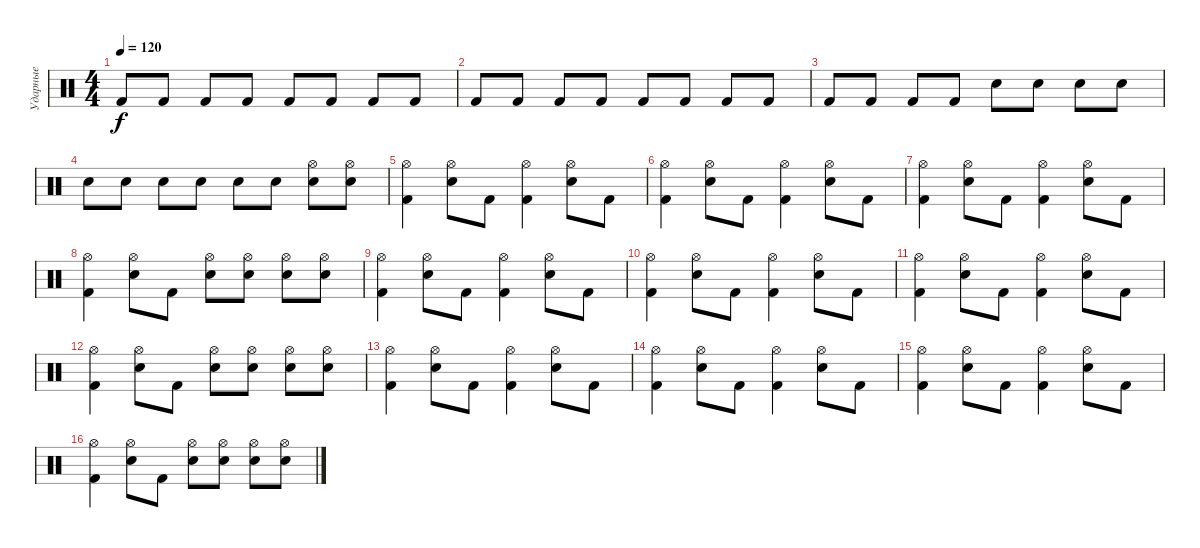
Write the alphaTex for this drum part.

\track ("Ударные" "Ударные") {instrument percussion}
\staff {score}
\articulation defaults
\ts (4 4)
\tempo 120
\clef neutral
\ks c "Kick (hit) 2".8{dy f} "Kick (hit) 2".8 "Kick (hit) 2".8 "Kick (hit) 2".8 "Kick (hit) 2".8 "Kick (hit) 2".8 "Kick (hit) 2".8 "Kick (hit) 2".8
|
"Kick (hit) 2".8 "Kick (hit) 2".8 "Kick (hit) 2".8 "Kick (hit) 2".8 "Kick (hit) 2".8 "Kick (hit) 2".8 "Kick (hit) 2".8 "Kick (hit) 2".8 |
"Kick (hit) 2".8 "Kick (hit) 2".8 "Kick (hit) 2".8 "Kick (hit) 2".8 "Snare (hit) 2".8 "Snare (hit) 2".8 "Snare (hit) 2".8 "Snare (hit) 2".8 |
"Snare (hit) 2".8 "Snare (hit) 2".8 "Snare (hit) 2".8 "Snare (hit) 2".8 "Snare (hit) 2".8 "Snare (hit) 2".8 ("Hi-Hat (open)" "Snare (hit) 2").8 ("Hi-Hat (open)" "Snare (hit) 2").8 |
("Hi-Hat (open)" "Kick (hit) 2").4 ("Hi-Hat (open)" "Snare (hit) 2").8 "Kick (hit) 2".8 ("Hi-Hat (open)" "Kick (hit) 2").4 ("Hi-Hat (open)" "Snare (hit) 2").8 "Kick (hit) 2".8 |
("Hi-Hat (open)" "Kick (hit) 2").4 ("Hi-Hat (open)" "Snare (hit) 2").8 "Kick (hit) 2".8 ("Hi-Hat (open)" "Kick (hit) 2").4 ("Hi-Hat (open)" "Snare (hit) 2").8 "Kick (hit) 2".8 |
("Hi-Hat (open)" "Kick (hit) 2").4 ("Hi-Hat (open)" "Snare (hit) 2").8 "Kick (hit) 2".8 ("Hi-Hat (open)" "Kick (hit) 2").4 ("Hi-Hat (open)" "Snare (hit) 2").8 "Kick (hit) 2".8 |
("Hi-Hat (open)" "Kick (hit) 2").4 ("Hi-Hat (open)" "Snare (hit) 2").8 "Kick (hit) 2".8 ("Hi-Hat (open)" "Snare (hit) 2").8 ("Hi-Hat (open)" "Snare (hit) 2").8 ("Hi-Hat (open)" "Snare (hit) 2").8 ("Hi-Hat (open)" "Snare (hit) 2").8 |
("Hi-Hat (open)" "Kick (hit) 2").4 ("Hi-Hat (open)" "Snare (hit) 2").8 "Kick (hit) 2".8 ("Hi-Hat (open)" "Kick (hit) 2").4 ("Hi-Hat (open)" "Snare (hit) 2").8 "Kick (hit) 2".8 |
("Hi-Hat (open)" "Kick (hit) 2").4 ("Hi-Hat (open)" "Snare (hit) 2").8 "Kick (hit) 2".8 ("Hi-Hat (open)" "Kick (hit) 2").4 ("Hi-Hat (open)" "Snare (hit) 2").8 "Kick (hit) 2".8 |
("Hi-Hat (open)" "Kick (hit) 2").4 ("Hi-Hat (open)" "Snare (hit) 2").8 "Kick (hit) 2".8 ("Hi-Hat (open)" "Kick (hit) 2").4 ("Hi-Hat (open)" "Snare (hit) 2").8 "Kick (hit) 2".8 |
("Hi-Hat (open)" "Kick (hit) 2").4 ("Hi-Hat (open)" "Snare (hit) 2").8 "Kick (hit) 2".8 ("Hi-Hat (open)" "Snare (hit) 2").8 ("Hi-Hat (open)" "Snare (hit) 2").8 ("Hi-Hat (open)" "Snare (hit) 2").8 ("Hi-Hat (open)" "Snare (hit) 2").8 |
("Hi-Hat (open)" "Kick (hit) 2").4 ("Hi-Hat (open)" "Snare (hit) 2").8 "Kick (hit) 2".8 ("Hi-Hat (open)" "Kick (hit) 2").4 ("Hi-Hat (open)" "Snare (hit) 2").8 "Kick (hit) 2".8 |
("Hi-Hat (open)" "Kick (hit) 2").4 ("Hi-Hat (open)" "Snare (hit) 2").8 "Kick (hit) 2".8 ("Hi-Hat (open)" "Kick (hit) 2").4 ("Hi-Hat (open)" "Snare (hit) 2").8 "Kick (hit) 2".8 |
("Hi-Hat (open)" "Kick (hit) 2").4 ("Hi-Hat (open)" "Snare (hit) 2").8 "Kick (hit) 2".8 ("Hi-Hat (open)" "Kick (hit) 2").4 ("Hi-Hat (open)" "Snare (hit) 2").8 "Kick (hit) 2".8 |
("Hi-Hat (open)" "Kick (hit) 2").4 ("Hi-Hat (open)" "Snare (hit) 2").8 "Kick (hit) 2".8 ("Hi-Hat (open)" "Snare (hit) 2").8 ("Hi-Hat (open)" "Snare (hit) 2").8 ("Hi-Hat (open)" "Snare (hit) 2").8 ("Hi-Hat (open)" "Snare (hit) 2").8
